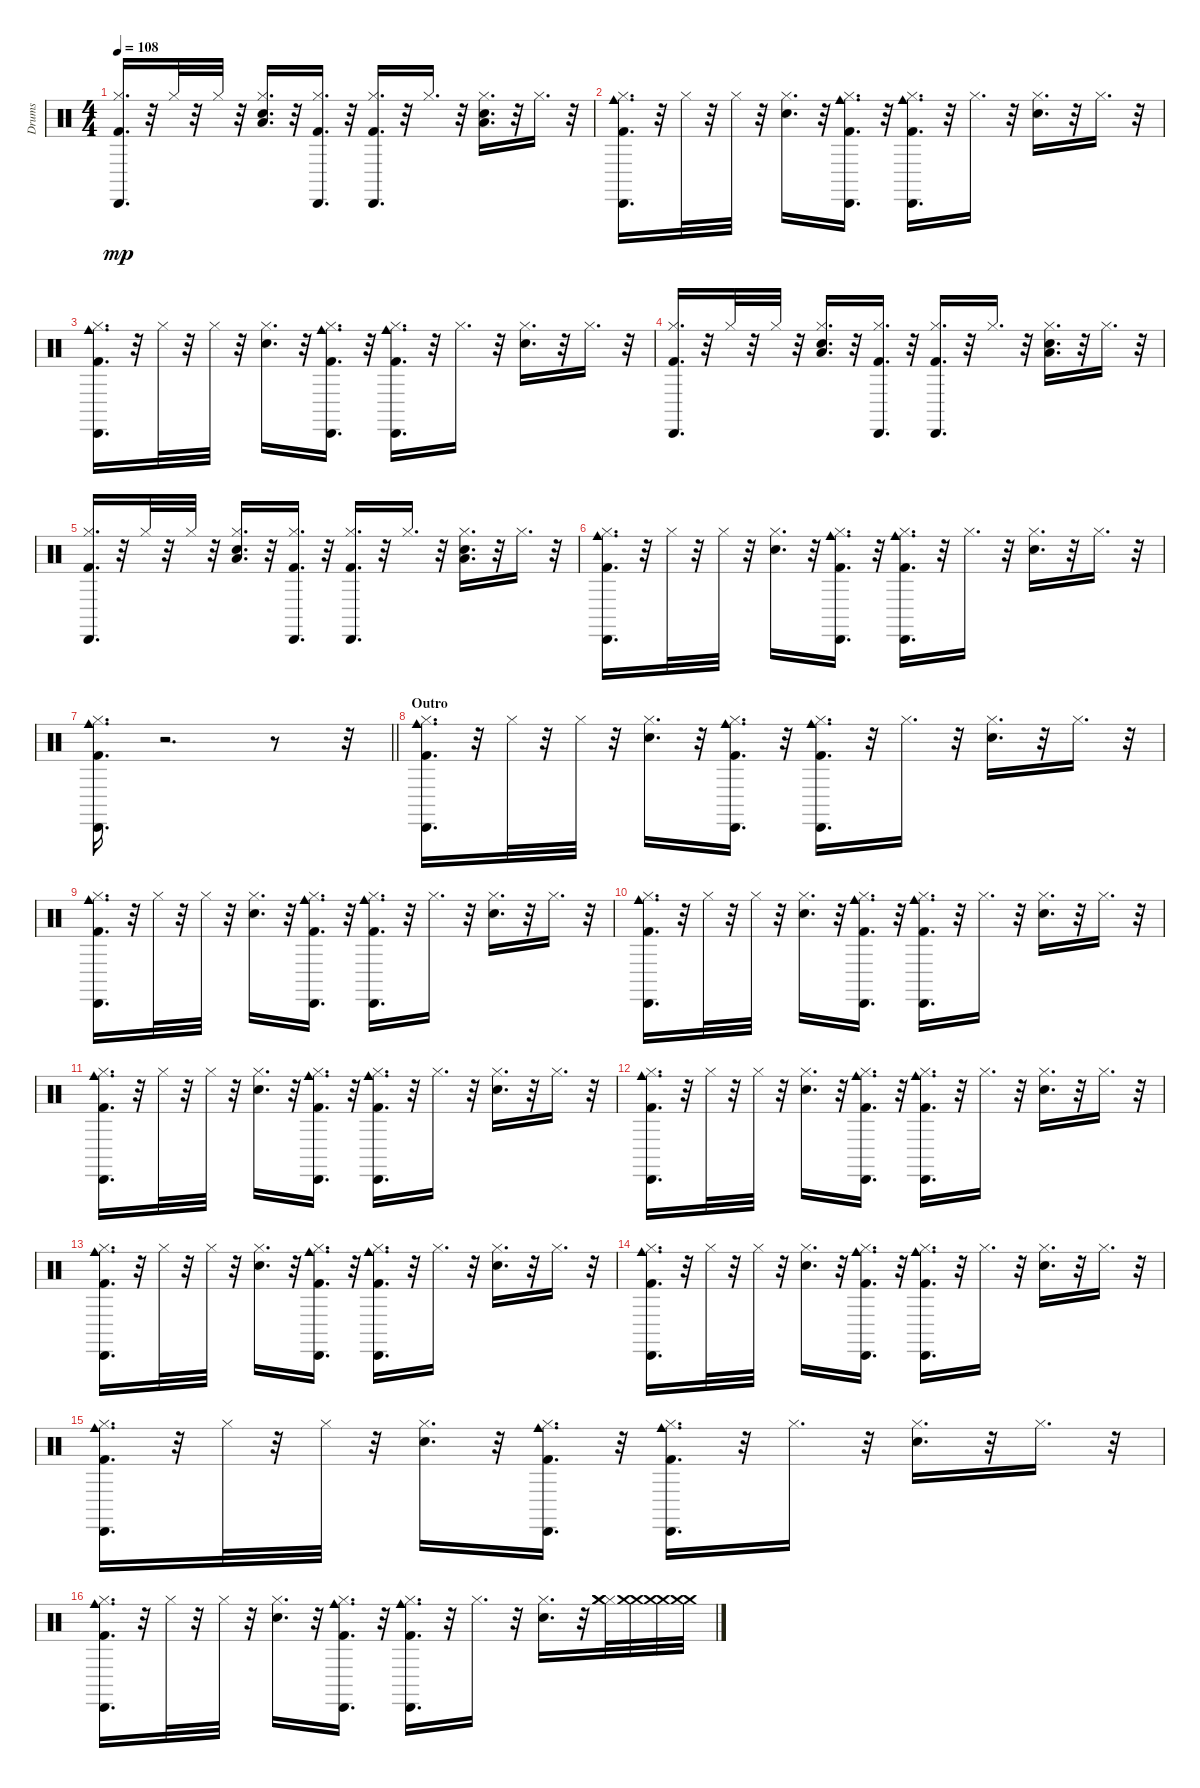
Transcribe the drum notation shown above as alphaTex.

\track ("Drums" "Drums") {instrument percussion}
\staff {score}
\articulation defaults
\ts (4 4)
\tempo 108
\clef neutral
\ks c
("Kick (hit) 2" "Hi-Hat (closed)" "Cabasa (hit)").16{d dy mp} r.32 "Hi-Hat (closed)".32 r.32 "Hi-Hat (closed)".32 r.32 ("Snare (hit) 2" "Hi-Hat (closed)" "Low Tom (hit)").16{d} r.32 ("Kick (hit) 2" "Hi-Hat (closed)" "Cabasa (hit)").16{d} r.32 ("Kick (hit) 2" "Hi-Hat (closed)" "Cabasa (hit)").16{d} r.32 "Hi-Hat (closed)".16{d} r.32 ("Snare (hit) 2" "Hi-Hat (closed)" "Low Tom (hit)").16{d} r.32 "Hi-Hat (closed)".16{d} r.32 |
("Kick (hit) 2" "Hi-Hat (closed)" "Cabasa (hit)" "Cowbell medium (hit)").16{d} r.32 "Hi-Hat (closed)".32 r.32 "Hi-Hat (closed)".32 r.32 ("Snare (hit) 2" "Hi-Hat (closed)").16{d} r.32 ("Kick (hit) 2" "Hi-Hat (closed)" "Cabasa (hit)" "Cowbell medium (hit)").16{d} r.32 ("Kick (hit) 2" "Hi-Hat (closed)" "Cabasa (hit)" "Cowbell medium (hit)").16{d} r.32 "Hi-Hat (closed)".16{d} r.32 ("Snare (hit) 2" "Hi-Hat (closed)").16{d} r.32 "Hi-Hat (closed)".16{d} r.32 |
("Kick (hit) 2" "Hi-Hat (closed)" "Cabasa (hit)" "Cowbell medium (hit)").16{d} r.32 "Hi-Hat (closed)".32 r.32 "Hi-Hat (closed)".32 r.32 ("Snare (hit) 2" "Hi-Hat (closed)").16{d} r.32 ("Kick (hit) 2" "Hi-Hat (closed)" "Cabasa (hit)" "Cowbell medium (hit)").16{d} r.32 ("Kick (hit) 2" "Hi-Hat (closed)" "Cabasa (hit)" "Cowbell medium (hit)").16{d} r.32 "Hi-Hat (closed)".16{d} r.32 ("Snare (hit) 2" "Hi-Hat (closed)").16{d} r.32 "Hi-Hat (closed)".16{d} r.32 |
("Kick (hit) 2" "Hi-Hat (closed)" "Cabasa (hit)").16{d} r.32 "Hi-Hat (closed)".32 r.32 "Hi-Hat (closed)".32 r.32 ("Snare (hit) 2" "Hi-Hat (closed)" "Low Tom (hit)").16{d} r.32 ("Kick (hit) 2" "Hi-Hat (closed)" "Cabasa (hit)").16{d} r.32 ("Kick (hit) 2" "Hi-Hat (closed)" "Cabasa (hit)").16{d} r.32 "Hi-Hat (closed)".16{d} r.32 ("Snare (hit) 2" "Hi-Hat (closed)" "Low Tom (hit)").16{d} r.32 "Hi-Hat (closed)".16{d} r.32 |
("Kick (hit) 2" "Hi-Hat (closed)" "Cabasa (hit)").16{d} r.32 "Hi-Hat (closed)".32 r.32 "Hi-Hat (closed)".32 r.32 ("Snare (hit) 2" "Hi-Hat (closed)" "Low Tom (hit)").16{d} r.32 ("Kick (hit) 2" "Hi-Hat (closed)" "Cabasa (hit)").16{d} r.32 ("Kick (hit) 2" "Hi-Hat (closed)" "Cabasa (hit)").16{d} r.32 "Hi-Hat (closed)".16{d} r.32 ("Snare (hit) 2" "Hi-Hat (closed)" "Low Tom (hit)").16{d} r.32 "Hi-Hat (closed)".16{d} r.32 |
("Kick (hit) 2" "Hi-Hat (closed)" "Cabasa (hit)" "Cowbell medium (hit)").16{d} r.32 "Hi-Hat (closed)".32 r.32 "Hi-Hat (closed)".32 r.32 ("Snare (hit) 2" "Hi-Hat (closed)").16{d} r.32 ("Kick (hit) 2" "Hi-Hat (closed)" "Cabasa (hit)" "Cowbell medium (hit)").16{d} r.32 ("Kick (hit) 2" "Hi-Hat (closed)" "Cabasa (hit)" "Cowbell medium (hit)").16{d} r.32 "Hi-Hat (closed)".16{d} r.32 ("Snare (hit) 2" "Hi-Hat (closed)").16{d} r.32 "Hi-Hat (closed)".16{d} r.32 |
\barLineRight lightlight
("Kick (hit) 2" "Hi-Hat (closed)" "Cowbell medium (hit)" "Cabasa (hit)").16{d} r.2{d} r.8 r.32 |
\section ("" "Outro")
("Kick (hit) 2" "Hi-Hat (closed)" "Cabasa (hit)" "Cowbell medium (hit)").16{d} r.32 "Hi-Hat (closed)".32 r.32 "Hi-Hat (closed)".32 r.32 ("Snare (hit) 2" "Hi-Hat (closed)").16{d} r.32 ("Kick (hit) 2" "Hi-Hat (closed)" "Cabasa (hit)" "Cowbell medium (hit)").16{d} r.32 ("Kick (hit) 2" "Hi-Hat (closed)" "Cabasa (hit)" "Cowbell medium (hit)").16{d} r.32 "Hi-Hat (closed)".16{d} r.32 ("Snare (hit) 2" "Hi-Hat (closed)").16{d} r.32 "Hi-Hat (closed)".16{d} r.32 |
("Kick (hit) 2" "Hi-Hat (closed)" "Cabasa (hit)" "Cowbell medium (hit)").16{d} r.32 "Hi-Hat (closed)".32 r.32 "Hi-Hat (closed)".32 r.32 ("Snare (hit) 2" "Hi-Hat (closed)").16{d} r.32 ("Kick (hit) 2" "Hi-Hat (closed)" "Cabasa (hit)" "Cowbell medium (hit)").16{d} r.32 ("Kick (hit) 2" "Hi-Hat (closed)" "Cabasa (hit)" "Cowbell medium (hit)").16{d} r.32 "Hi-Hat (closed)".16{d} r.32 ("Snare (hit) 2" "Hi-Hat (closed)").16{d} r.32 "Hi-Hat (closed)".16{d} r.32 |
("Kick (hit) 2" "Hi-Hat (closed)" "Cabasa (hit)" "Cowbell medium (hit)").16{d} r.32 "Hi-Hat (closed)".32 r.32 "Hi-Hat (closed)".32 r.32 ("Snare (hit) 2" "Hi-Hat (closed)").16{d} r.32 ("Kick (hit) 2" "Hi-Hat (closed)" "Cabasa (hit)" "Cowbell medium (hit)").16{d} r.32 ("Kick (hit) 2" "Hi-Hat (closed)" "Cabasa (hit)" "Cowbell medium (hit)").16{d} r.32 "Hi-Hat (closed)".16{d} r.32 ("Snare (hit) 2" "Hi-Hat (closed)").16{d} r.32 "Hi-Hat (closed)".16{d} r.32 |
("Kick (hit) 2" "Hi-Hat (closed)" "Cabasa (hit)" "Cowbell medium (hit)").16{d} r.32 "Hi-Hat (closed)".32 r.32 "Hi-Hat (closed)".32 r.32 ("Snare (hit) 2" "Hi-Hat (closed)").16{d} r.32 ("Kick (hit) 2" "Hi-Hat (closed)" "Cabasa (hit)" "Cowbell medium (hit)").16{d} r.32 ("Kick (hit) 2" "Hi-Hat (closed)" "Cabasa (hit)" "Cowbell medium (hit)").16{d} r.32 "Hi-Hat (closed)".16{d} r.32 ("Snare (hit) 2" "Hi-Hat (closed)").16{d} r.32 "Hi-Hat (closed)".16{d} r.32 |
("Kick (hit) 2" "Hi-Hat (closed)" "Cabasa (hit)" "Cowbell medium (hit)").16{d} r.32 "Hi-Hat (closed)".32 r.32 "Hi-Hat (closed)".32 r.32 ("Snare (hit) 2" "Hi-Hat (closed)").16{d} r.32 ("Kick (hit) 2" "Hi-Hat (closed)" "Cabasa (hit)" "Cowbell medium (hit)").16{d} r.32 ("Kick (hit) 2" "Hi-Hat (closed)" "Cabasa (hit)" "Cowbell medium (hit)").16{d} r.32 "Hi-Hat (closed)".16{d} r.32 ("Snare (hit) 2" "Hi-Hat (closed)").16{d} r.32 "Hi-Hat (closed)".16{d} r.32 |
("Kick (hit) 2" "Hi-Hat (closed)" "Cabasa (hit)" "Cowbell medium (hit)").16{d} r.32 "Hi-Hat (closed)".32 r.32 "Hi-Hat (closed)".32 r.32 ("Snare (hit) 2" "Hi-Hat (closed)").16{d} r.32 ("Kick (hit) 2" "Hi-Hat (closed)" "Cabasa (hit)" "Cowbell medium (hit)").16{d} r.32 ("Kick (hit) 2" "Hi-Hat (closed)" "Cabasa (hit)" "Cowbell medium (hit)").16{d} r.32 "Hi-Hat (closed)".16{d} r.32 ("Snare (hit) 2" "Hi-Hat (closed)").16{d} r.32 "Hi-Hat (closed)".16{d} r.32 |
("Kick (hit) 2" "Hi-Hat (closed)" "Cabasa (hit)" "Cowbell medium (hit)").16{d} r.32 "Hi-Hat (closed)".32 r.32 "Hi-Hat (closed)".32 r.32 ("Snare (hit) 2" "Hi-Hat (closed)").16{d} r.32 ("Kick (hit) 2" "Hi-Hat (closed)" "Cabasa (hit)" "Cowbell medium (hit)").16{d} r.32 ("Kick (hit) 2" "Hi-Hat (closed)" "Cabasa (hit)" "Cowbell medium (hit)").16{d} r.32 "Hi-Hat (closed)".16{d} r.32 ("Snare (hit) 2" "Hi-Hat (closed)").16{d} r.32 "Hi-Hat (closed)".16{d} r.32 |
("Kick (hit) 2" "Hi-Hat (closed)" "Cabasa (hit)" "Cowbell medium (hit)").16{d} r.32 "Hi-Hat (closed)".32 r.32 "Hi-Hat (closed)".32 r.32 ("Snare (hit) 2" "Hi-Hat (closed)").16{d} r.32 ("Kick (hit) 2" "Hi-Hat (closed)" "Cabasa (hit)" "Cowbell medium (hit)").16{d} r.32 ("Kick (hit) 2" "Hi-Hat (closed)" "Cabasa (hit)" "Cowbell medium (hit)").16{d} r.32 "Hi-Hat (closed)".16{d} r.32 ("Snare (hit) 2" "Hi-Hat (closed)").16{d} r.32 "Hi-Hat (closed)".16{d} r.32 |
("Kick (hit) 2" "Hi-Hat (closed)" "Cabasa (hit)" "Cowbell medium (hit)").16{d} r.32 "Hi-Hat (closed)".32 r.32 "Hi-Hat (closed)".32 r.32 ("Snare (hit) 2" "Hi-Hat (closed)").16{d} r.32 ("Kick (hit) 2" "Hi-Hat (closed)" "Cabasa (hit)" "Cowbell medium (hit)").16{d} r.32 ("Kick (hit) 2" "Hi-Hat (closed)" "Cabasa (hit)" "Cowbell medium (hit)").16{d} r.32 "Hi-Hat (closed)".16{d} r.32 ("Snare (hit) 2" "Hi-Hat (closed)").16{d} r.32 ("Hi-Hat (closed)" "Crash medium (hit)" "Crash medium (hit)").32 ("Crash medium (hit)" "Crash medium (hit)").32 ("Crash medium (hit)" "Crash medium (hit)").32 ("Crash medium (hit)" "Crash medium (hit)").32
